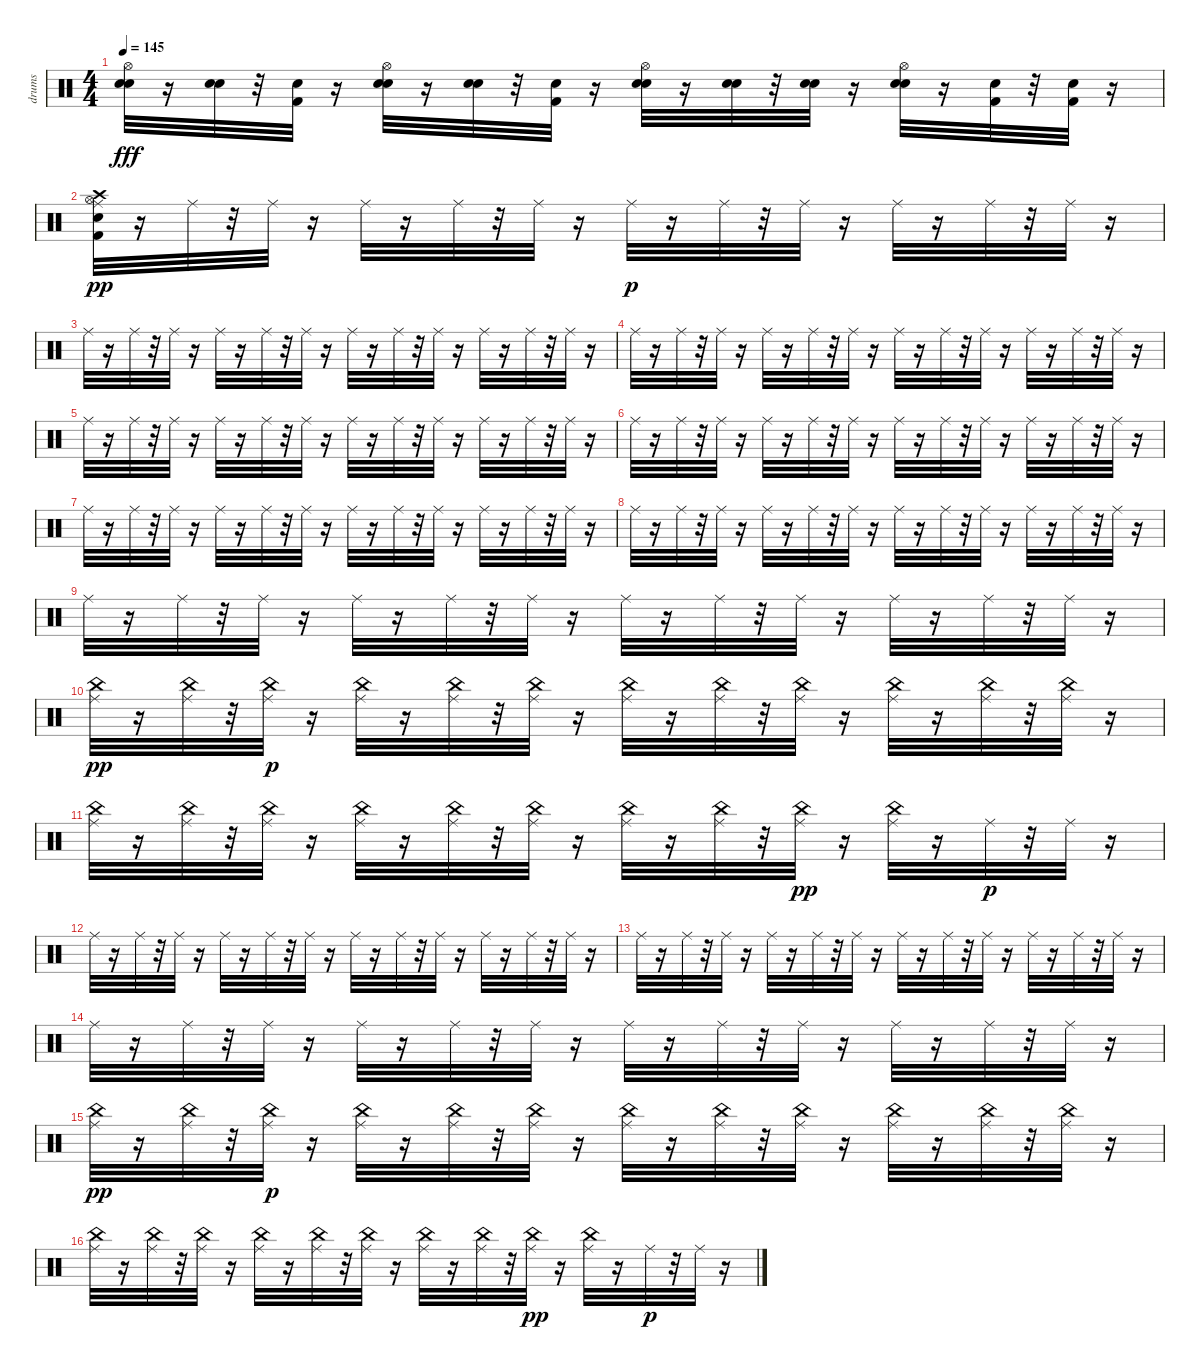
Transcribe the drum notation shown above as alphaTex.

\track ("drums" "drums") {instrument percussion}
\staff {score}
\articulation defaults
\ts (4 4)
\tempo 145
\clef neutral
\ks c
("Snare (hit) 2" "Electric Snare (hit)" "Hi-Hat (open)").32{dy fff} r.16 ("Snare (hit) 2" "Electric Snare (hit)").32 r.32 ("Snare (hit) 2" "Kick (hit) 2").32 r.16 ("Snare (hit) 2" "Electric Snare (hit)" "Hi-Hat (open)").32 r.16 ("Snare (hit) 2" "Electric Snare (hit)").32 r.32 ("Snare (hit) 2" "Kick (hit) 2").32 r.16 ("Snare (hit) 2" "Electric Snare (hit)" "Hi-Hat (open)").32 r.16 ("Snare (hit) 2" "Electric Snare (hit)").32 r.32 ("Snare (hit) 2" "Electric Snare (hit)").32 r.16 ("Snare (hit) 2" "Electric Snare (hit)" "Hi-Hat (open)").32 r.16 ("Snare (hit) 2" "Kick (hit) 2").32 r.32 ("Snare (hit) 2" "Kick (hit) 2").32 r.16 |
("Hi-Hat (open)" "Crash high (hit)" "Snare (hit) 2" "Kick (hit) 2" "Ride (middle)").32{dy pp} r.16 "Ride (middle)".32 r.32 "Ride (middle)".32 r.16 "Ride (middle)".32 r.16 "Ride (middle)".32 r.32 "Ride (middle)".32 r.16 "Ride (middle)".32{dy p} r.16 "Ride (middle)".32 r.32 "Ride (middle)".32 r.16 "Ride (middle)".32 r.16 "Ride (middle)".32 r.32 "Ride (middle)".32 r.16 |
"Ride (middle)".32 r.16 "Ride (middle)".32 r.32 "Ride (middle)".32 r.16 "Ride (middle)".32 r.16 "Ride (middle)".32 r.32 "Ride (middle)".32 r.16 "Ride (middle)".32 r.16 "Ride (middle)".32 r.32 "Ride (middle)".32 r.16 "Ride (middle)".32 r.16 "Ride (middle)".32 r.32 "Ride (middle)".32 r.16 |
"Ride (middle)".32 r.16 "Ride (middle)".32 r.32 "Ride (middle)".32 r.16 "Ride (middle)".32 r.16 "Ride (middle)".32 r.32 "Ride (middle)".32 r.16 "Ride (middle)".32 r.16 "Ride (middle)".32 r.32 "Ride (middle)".32 r.16 "Ride (middle)".32 r.16 "Ride (middle)".32 r.32 "Ride (middle)".32 r.16 |
"Ride (middle)".32 r.16 "Ride (middle)".32 r.32 "Ride (middle)".32 r.16 "Ride (middle)".32 r.16 "Ride (middle)".32 r.32 "Ride (middle)".32 r.16 "Ride (middle)".32 r.16 "Ride (middle)".32 r.32 "Ride (middle)".32 r.16 "Ride (middle)".32 r.16 "Ride (middle)".32 r.32 "Ride (middle)".32 r.16 |
"Ride (middle)".32 r.16 "Ride (middle)".32 r.32 "Ride (middle)".32 r.16 "Ride (middle)".32 r.16 "Ride (middle)".32 r.32 "Ride (middle)".32 r.16 "Ride (middle)".32 r.16 "Ride (middle)".32 r.32 "Ride (middle)".32 r.16 "Ride (middle)".32 r.16 "Ride (middle)".32 r.32 "Ride (middle)".32 r.16 |
"Ride (middle)".32 r.16 "Ride (middle)".32 r.32 "Ride (middle)".32 r.16 "Ride (middle)".32 r.16 "Ride (middle)".32 r.32 "Ride (middle)".32 r.16 "Ride (middle)".32 r.16 "Ride (middle)".32 r.32 "Ride (middle)".32 r.16 "Ride (middle)".32 r.16 "Ride (middle)".32 r.32 "Ride (middle)".32 r.16 |
"Ride (middle)".32 r.16 "Ride (middle)".32 r.32 "Ride (middle)".32 r.16 "Ride (middle)".32 r.16 "Ride (middle)".32 r.32 "Ride (middle)".32 r.16 "Ride (middle)".32 r.16 "Ride (middle)".32 r.32 "Ride (middle)".32 r.16 "Ride (middle)".32 r.16 "Ride (middle)".32 r.32 "Ride (middle)".32 r.16 |
"Ride (middle)".32 r.16 "Ride (middle)".32 r.32 "Ride (middle)".32 r.16 "Ride (middle)".32 r.16 "Ride (middle)".32 r.32 "Ride (middle)".32 r.16 "Ride (middle)".32 r.16 "Ride (middle)".32 r.32 "Ride (middle)".32 r.16 "Ride (middle)".32 r.16 "Ride (middle)".32 r.32 "Ride (middle)".32 r.16 |
("Ride (middle)" "China (hit)").32{dy pp} r.16 ("Ride (middle)" "China (hit)").32 r.32 ("Ride (middle)" "China (hit)").32{dy p} r.16 ("Ride (middle)" "China (hit)").32 r.16 ("Ride (middle)" "China (hit)").32 r.32 ("Ride (middle)" "China (hit)").32 r.16 ("Ride (middle)" "China (hit)").32 r.16 ("Ride (middle)" "China (hit)").32 r.32 ("Ride (middle)" "China (hit)").32 r.16 ("Ride (middle)" "China (hit)").32 r.16 ("Ride (middle)" "China (hit)").32 r.32 ("Ride (middle)" "China (hit)").32 r.16 |
("Ride (middle)" "China (hit)").32 r.16 ("Ride (middle)" "China (hit)").32 r.32 ("Ride (middle)" "China (hit)").32 r.16 ("Ride (middle)" "China (hit)").32 r.16 ("Ride (middle)" "China (hit)").32 r.32 ("Ride (middle)" "China (hit)").32 r.16 ("Ride (middle)" "China (hit)").32 r.16 ("Ride (middle)" "China (hit)").32 r.32 ("Ride (middle)" "China (hit)").32{dy pp} r.16 ("Ride (middle)" "China (hit)").32 r.16 "Ride (middle)".32{dy p} r.32 "Ride (middle)".32 r.16 |
"Ride (middle)".32 r.16 "Ride (middle)".32 r.32 "Ride (middle)".32 r.16 "Ride (middle)".32 r.16 "Ride (middle)".32 r.32 "Ride (middle)".32 r.16 "Ride (middle)".32 r.16 "Ride (middle)".32 r.32 "Ride (middle)".32 r.16 "Ride (middle)".32 r.16 "Ride (middle)".32 r.32 "Ride (middle)".32 r.16 |
"Ride (middle)".32 r.16 "Ride (middle)".32 r.32 "Ride (middle)".32 r.16 "Ride (middle)".32 r.16 "Ride (middle)".32 r.32 "Ride (middle)".32 r.16 "Ride (middle)".32 r.16 "Ride (middle)".32 r.32 "Ride (middle)".32 r.16 "Ride (middle)".32 r.16 "Ride (middle)".32 r.32 "Ride (middle)".32 r.16 |
"Ride (middle)".32 r.16 "Ride (middle)".32 r.32 "Ride (middle)".32 r.16 "Ride (middle)".32 r.16 "Ride (middle)".32 r.32 "Ride (middle)".32 r.16 "Ride (middle)".32 r.16 "Ride (middle)".32 r.32 "Ride (middle)".32 r.16 "Ride (middle)".32 r.16 "Ride (middle)".32 r.32 "Ride (middle)".32 r.16 |
("Ride (middle)" "China (hit)").32{dy pp} r.16 ("Ride (middle)" "China (hit)").32 r.32 ("Ride (middle)" "China (hit)").32{dy p} r.16 ("Ride (middle)" "China (hit)").32 r.16 ("Ride (middle)" "China (hit)").32 r.32 ("Ride (middle)" "China (hit)").32 r.16 ("Ride (middle)" "China (hit)").32 r.16 ("Ride (middle)" "China (hit)").32 r.32 ("Ride (middle)" "China (hit)").32 r.16 ("Ride (middle)" "China (hit)").32 r.16 ("Ride (middle)" "China (hit)").32 r.32 ("Ride (middle)" "China (hit)").32 r.16 |
("Ride (middle)" "China (hit)").32 r.16 ("Ride (middle)" "China (hit)").32 r.32 ("Ride (middle)" "China (hit)").32 r.16 ("Ride (middle)" "China (hit)").32 r.16 ("Ride (middle)" "China (hit)").32 r.32 ("Ride (middle)" "China (hit)").32 r.16 ("Ride (middle)" "China (hit)").32 r.16 ("Ride (middle)" "China (hit)").32 r.32 ("Ride (middle)" "China (hit)").32{dy pp} r.16 ("Ride (middle)" "China (hit)").32 r.16 "Ride (middle)".32{dy p} r.32 "Ride (middle)".32 r.16
